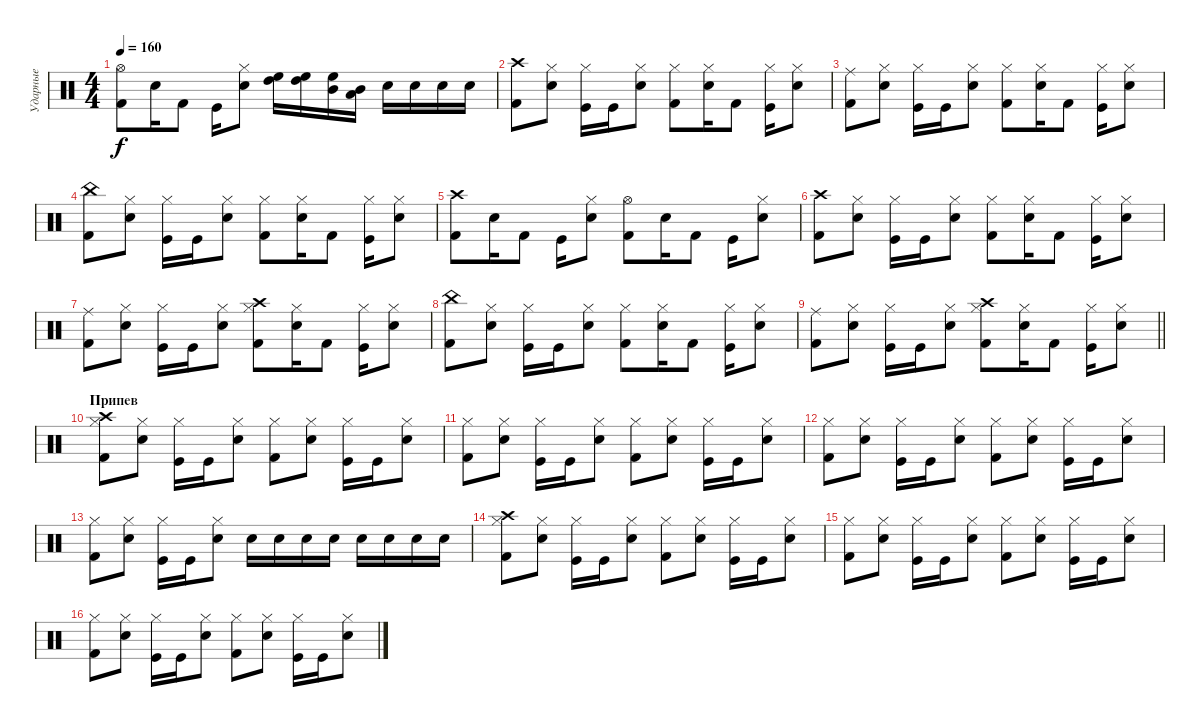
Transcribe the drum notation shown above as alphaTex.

\track ("Ударные" "Ударные") {instrument percussion}
\staff {score}
\articulation defaults
\ts (4 4)
\tempo 160
\clef neutral
\ks c
("Hi-Hat (open)" "Kick (hit) 2").8{dy f} "Snare (hit) 2".16 "Kick (hit) 2".8 "Kick (hit)".16 ("Hi-Hat (closed)" "Snare (hit) 2").8 ("High Tom (hit)" "High Floor Tom (hit)").16 ("High Floor Tom (hit)" "High Tom (hit)").16 ("High Floor Tom (hit)" "Mid Tom (hit)").16 ("Mid Tom (hit)" "Low Tom (hit)").16 "Snare (hit) 2".16 "Snare (hit) 2".16 "Snare (hit) 2".16 "Snare (hit) 2".16 |
("Crash high (hit)" "Kick (hit) 2").8 ("Hi-Hat (closed)" "Snare (hit) 2").8 ("Hi-Hat (closed)" "Kick (hit)").16 "Kick (hit)".16 ("Hi-Hat (closed)" "Snare (hit) 2").8 ("Hi-Hat (closed)" "Kick (hit) 2").8 ("Hi-Hat (closed)" "Snare (hit) 2").16 "Kick (hit) 2".8 ("Hi-Hat (closed)" "Kick (hit)").16 ("Hi-Hat (closed)" "Snare (hit) 2").8 |
("Ride (middle)" "Kick (hit) 2").8 ("Hi-Hat (closed)" "Snare (hit) 2").8 ("Hi-Hat (closed)" "Kick (hit)").16 "Kick (hit)".16 ("Hi-Hat (closed)" "Snare (hit) 2").8 ("Hi-Hat (closed)" "Kick (hit) 2").8 ("Hi-Hat (closed)" "Snare (hit) 2").16 "Kick (hit) 2".8 ("Hi-Hat (closed)" "Kick (hit)").16 ("Hi-Hat (closed)" "Snare (hit) 2").8 |
("China (hit)" "Kick (hit) 2").8 ("Hi-Hat (closed)" "Snare (hit) 2").8 ("Hi-Hat (closed)" "Kick (hit)").16 "Kick (hit)".16 ("Hi-Hat (closed)" "Snare (hit) 2").8 ("Hi-Hat (closed)" "Kick (hit) 2").8 ("Hi-Hat (closed)" "Snare (hit) 2").16 "Kick (hit) 2".8 ("Hi-Hat (closed)" "Kick (hit)").16 ("Hi-Hat (closed)" "Snare (hit) 2").8 |
("Crash high (hit)" "Kick (hit) 2").8 "Snare (hit) 2".16 "Kick (hit) 2".8 "Kick (hit)".16 ("Hi-Hat (closed)" "Snare (hit) 2").8 ("Hi-Hat (open)" "Kick (hit) 2").8 "Snare (hit) 2".16 "Kick (hit) 2".8 "Kick (hit)".16 ("Hi-Hat (closed)" "Snare (hit) 2").8 |
("Crash high (hit)" "Kick (hit) 2").8 ("Hi-Hat (closed)" "Snare (hit) 2").8 ("Hi-Hat (closed)" "Kick (hit)").16 "Kick (hit)".16 ("Hi-Hat (closed)" "Snare (hit) 2").8 ("Hi-Hat (closed)" "Kick (hit) 2").8 ("Hi-Hat (closed)" "Snare (hit) 2").16 "Kick (hit) 2".8 ("Hi-Hat (closed)" "Kick (hit)").16 ("Hi-Hat (closed)" "Snare (hit) 2").8 |
("Ride (middle)" "Kick (hit) 2").8 ("Hi-Hat (closed)" "Snare (hit) 2").8 ("Hi-Hat (closed)" "Kick (hit)").16 "Kick (hit)".16 ("Hi-Hat (closed)" "Snare (hit) 2").8 ("Crash high (hit)" "Hi-Hat (closed)" "Kick (hit) 2").8 ("Hi-Hat (closed)" "Snare (hit) 2").16 "Kick (hit) 2".8 ("Hi-Hat (closed)" "Kick (hit)").16 ("Hi-Hat (closed)" "Snare (hit) 2").8 |
("China (hit)" "Kick (hit) 2").8 ("Hi-Hat (closed)" "Snare (hit) 2").8 ("Hi-Hat (closed)" "Kick (hit)").16 "Kick (hit)".16 ("Hi-Hat (closed)" "Snare (hit) 2").8 ("Hi-Hat (closed)" "Kick (hit) 2").8 ("Hi-Hat (closed)" "Snare (hit) 2").16 "Kick (hit) 2".8 ("Hi-Hat (closed)" "Kick (hit)").16 ("Hi-Hat (closed)" "Snare (hit) 2").8 |
\barLineRight lightlight
("Ride (middle)" "Kick (hit) 2").8 ("Hi-Hat (closed)" "Snare (hit) 2").8 ("Hi-Hat (closed)" "Kick (hit)").16 "Kick (hit)".16 ("Hi-Hat (closed)" "Snare (hit) 2").8 ("Crash high (hit)" "Hi-Hat (closed)" "Kick (hit) 2").8 ("Hi-Hat (closed)" "Snare (hit) 2").16 "Kick (hit) 2".8 ("Hi-Hat (closed)" "Kick (hit)").16 ("Hi-Hat (closed)" "Snare (hit) 2").8 |
\section ("" "Припев")
("Crash high (hit)" "Hi-Hat (closed)" "Kick (hit) 2").8 ("Hi-Hat (closed)" "Snare (hit) 2").8 ("Hi-Hat (closed)" "Kick (hit)").16 "Kick (hit)".16 ("Hi-Hat (closed)" "Snare (hit) 2").8 ("Hi-Hat (closed)" "Kick (hit) 2").8 ("Hi-Hat (closed)" "Snare (hit) 2").8 ("Hi-Hat (closed)" "Kick (hit)").16 "Kick (hit)".16 ("Hi-Hat (closed)" "Snare (hit) 2").8 |
("Hi-Hat (closed)" "Kick (hit) 2").8 ("Hi-Hat (closed)" "Snare (hit) 2").8 ("Hi-Hat (closed)" "Kick (hit)").16 "Kick (hit)".16 ("Hi-Hat (closed)" "Snare (hit) 2").8 ("Hi-Hat (closed)" "Kick (hit) 2").8 ("Hi-Hat (closed)" "Snare (hit) 2").8 ("Hi-Hat (closed)" "Kick (hit)").16 "Kick (hit)".16 ("Hi-Hat (closed)" "Snare (hit) 2").8 |
("Hi-Hat (closed)" "Kick (hit) 2").8 ("Hi-Hat (closed)" "Snare (hit) 2").8 ("Hi-Hat (closed)" "Kick (hit)").16 "Kick (hit)".16 ("Hi-Hat (closed)" "Snare (hit) 2").8 ("Hi-Hat (closed)" "Kick (hit) 2").8 ("Hi-Hat (closed)" "Snare (hit) 2").8 ("Hi-Hat (closed)" "Kick (hit)").16 "Kick (hit)".16 ("Hi-Hat (closed)" "Snare (hit) 2").8 |
("Hi-Hat (closed)" "Kick (hit) 2").8 ("Hi-Hat (closed)" "Snare (hit) 2").8 ("Hi-Hat (closed)" "Kick (hit)").16 "Kick (hit)".16 ("Hi-Hat (closed)" "Snare (hit) 2").8 "Snare (hit) 2".16 "Snare (hit) 2".16 "Snare (hit) 2".16 "Snare (hit) 2".16 "Snare (hit) 2".16 "Snare (hit) 2".16 "Snare (hit) 2".16 "Snare (hit) 2".16 |
("Crash high (hit)" "Hi-Hat (closed)" "Kick (hit) 2").8 ("Hi-Hat (closed)" "Snare (hit) 2").8 ("Hi-Hat (closed)" "Kick (hit)").16 "Kick (hit)".16 ("Hi-Hat (closed)" "Snare (hit) 2").8 ("Hi-Hat (closed)" "Kick (hit) 2").8 ("Hi-Hat (closed)" "Snare (hit) 2").8 ("Hi-Hat (closed)" "Kick (hit)").16 "Kick (hit)".16 ("Hi-Hat (closed)" "Snare (hit) 2").8 |
("Hi-Hat (closed)" "Kick (hit) 2").8 ("Hi-Hat (closed)" "Snare (hit) 2").8 ("Hi-Hat (closed)" "Kick (hit)").16 "Kick (hit)".16 ("Hi-Hat (closed)" "Snare (hit) 2").8 ("Hi-Hat (closed)" "Kick (hit) 2").8 ("Hi-Hat (closed)" "Snare (hit) 2").8 ("Hi-Hat (closed)" "Kick (hit)").16 "Kick (hit)".16 ("Hi-Hat (closed)" "Snare (hit) 2").8 |
("Hi-Hat (closed)" "Kick (hit) 2").8 ("Hi-Hat (closed)" "Snare (hit) 2").8 ("Hi-Hat (closed)" "Kick (hit)").16 "Kick (hit)".16 ("Hi-Hat (closed)" "Snare (hit) 2").8 ("Hi-Hat (closed)" "Kick (hit) 2").8 ("Hi-Hat (closed)" "Snare (hit) 2").8 ("Hi-Hat (closed)" "Kick (hit)").16 "Kick (hit)".16 ("Hi-Hat (closed)" "Snare (hit) 2").8
